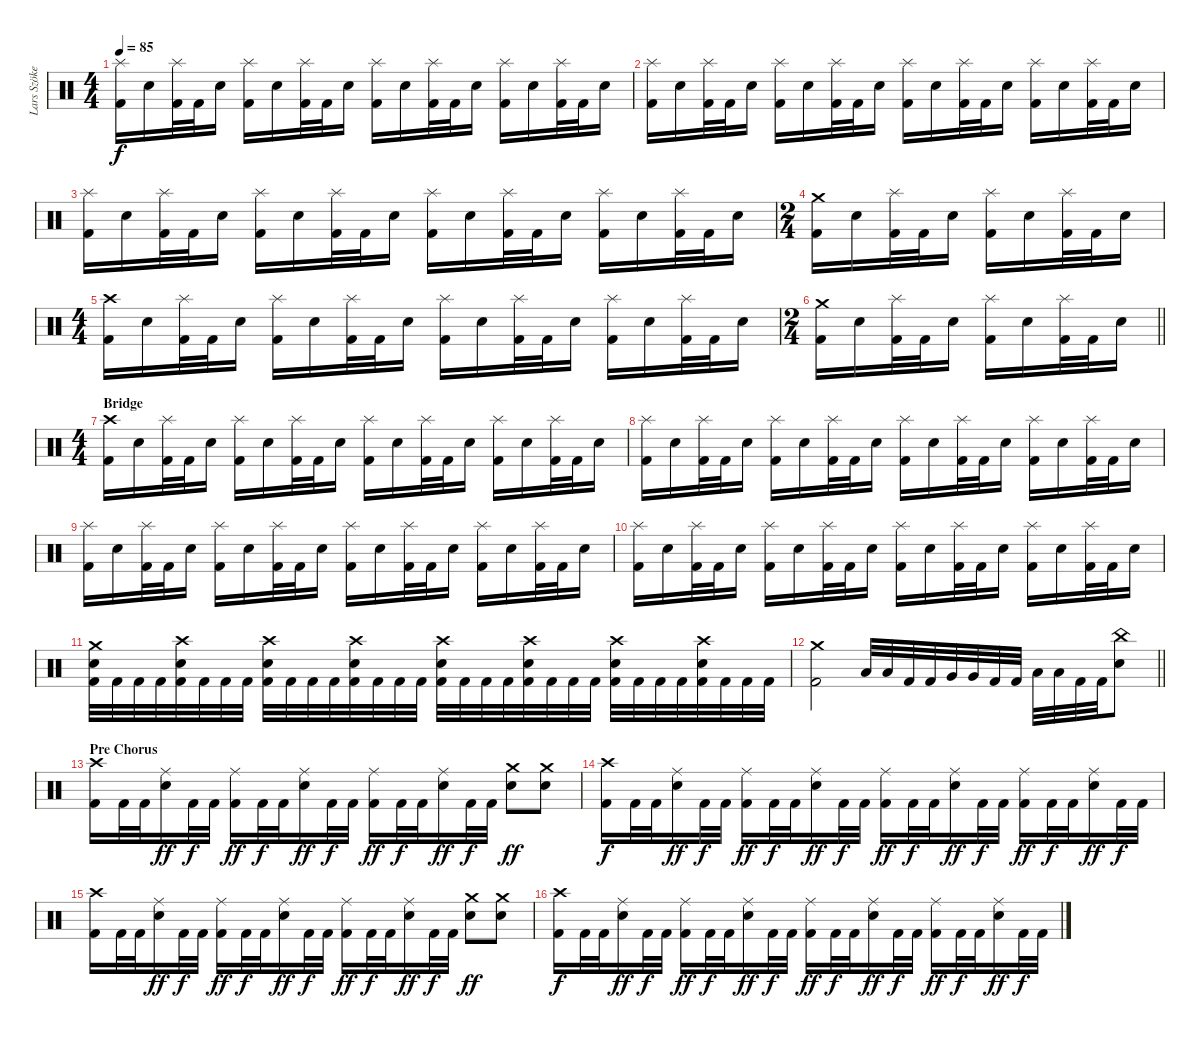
\track ("Lars Szöke" "Lars Szöke") {instrument percussion}
\staff {score}
\articulation defaults
\ts (4 4)
\tempo 85
\clef neutral
\ks c
("Splash (hit)" "Kick (hit) 2").16{dy f} "Snare (hit) 2".16 ("Splash (hit)" "Kick (hit) 2").32 "Kick (hit) 2".32 "Snare (hit) 2".16 ("Splash (hit)" "Kick (hit) 2").16 "Snare (hit) 2".16 ("Splash (hit)" "Kick (hit) 2").32 "Kick (hit) 2".32 "Snare (hit) 2".16 ("Splash (hit)" "Kick (hit) 2").16 "Snare (hit) 2".16 ("Splash (hit)" "Kick (hit) 2").32 "Kick (hit) 2".32 "Snare (hit) 2".16 ("Splash (hit)" "Kick (hit) 2").16 "Snare (hit) 2".16 ("Splash (hit)" "Kick (hit) 2").32 "Kick (hit) 2".32 "Snare (hit) 2".16 |
("Splash (hit)" "Kick (hit) 2").16 "Snare (hit) 2".16 ("Splash (hit)" "Kick (hit) 2").32 "Kick (hit) 2".32 "Snare (hit) 2".16 ("Splash (hit)" "Kick (hit) 2").16 "Snare (hit) 2".16 ("Splash (hit)" "Kick (hit) 2").32 "Kick (hit) 2".32 "Snare (hit) 2".16 ("Splash (hit)" "Kick (hit) 2").16 "Snare (hit) 2".16 ("Splash (hit)" "Kick (hit) 2").32 "Kick (hit) 2".32 "Snare (hit) 2".16 ("Splash (hit)" "Kick (hit) 2").16 "Snare (hit) 2".16 ("Splash (hit)" "Kick (hit) 2").32 "Kick (hit) 2".32 "Snare (hit) 2".16 |
("Splash (hit)" "Kick (hit) 2").16 "Snare (hit) 2".16 ("Splash (hit)" "Kick (hit) 2").32 "Kick (hit) 2".32 "Snare (hit) 2".16 ("Splash (hit)" "Kick (hit) 2").16 "Snare (hit) 2".16 ("Splash (hit)" "Kick (hit) 2").32 "Kick (hit) 2".32 "Snare (hit) 2".16 ("Splash (hit)" "Kick (hit) 2").16 "Snare (hit) 2".16 ("Splash (hit)" "Kick (hit) 2").32 "Kick (hit) 2".32 "Snare (hit) 2".16 ("Splash (hit)" "Kick (hit) 2").16 "Snare (hit) 2".16 ("Splash (hit)" "Kick (hit) 2").32 "Kick (hit) 2".32 "Snare (hit) 2".16 |
\ts (2 4)
("Crash medium (hit)" "Kick (hit) 2").16 "Snare (hit) 2".16 ("Splash (hit)" "Kick (hit) 2").32 "Kick (hit) 2".32 "Snare (hit) 2".16 ("Splash (hit)" "Kick (hit) 2").16 "Snare (hit) 2".16 ("Splash (hit)" "Kick (hit) 2").32 "Kick (hit) 2".32 "Snare (hit) 2".16 |
\ts (4 4)
("Crash high (hit)" "Kick (hit) 2").16 "Snare (hit) 2".16 ("Splash (hit)" "Kick (hit) 2").32 "Kick (hit) 2".32 "Snare (hit) 2".16 ("Splash (hit)" "Kick (hit) 2").16 "Snare (hit) 2".16 ("Splash (hit)" "Kick (hit) 2").32 "Kick (hit) 2".32 "Snare (hit) 2".16 ("Splash (hit)" "Kick (hit) 2").16 "Snare (hit) 2".16 ("Splash (hit)" "Kick (hit) 2").32 "Kick (hit) 2".32 "Snare (hit) 2".16 ("Splash (hit)" "Kick (hit) 2").16 "Snare (hit) 2".16 ("Splash (hit)" "Kick (hit) 2").32 "Kick (hit) 2".32 "Snare (hit) 2".16 |
\ts (2 4)
\barLineRight lightlight
("Crash medium (hit)" "Kick (hit) 2").16 "Snare (hit) 2".16 ("Splash (hit)" "Kick (hit) 2").32 "Kick (hit) 2".32 "Snare (hit) 2".16 ("Splash (hit)" "Kick (hit) 2").16 "Snare (hit) 2".16 ("Splash (hit)" "Kick (hit) 2").32 "Kick (hit) 2".32 "Snare (hit) 2".16 |
\ts (4 4)
\section ("" "Bridge")
("Crash high (hit)" "Kick (hit) 2").16 "Snare (hit) 2".16 ("Splash (hit)" "Kick (hit) 2").32 "Kick (hit) 2".32 "Snare (hit) 2".16 ("Splash (hit)" "Kick (hit) 2").16 "Snare (hit) 2".16 ("Splash (hit)" "Kick (hit) 2").32 "Kick (hit) 2".32 "Snare (hit) 2".16 ("Splash (hit)" "Kick (hit) 2").16 "Snare (hit) 2".16 ("Splash (hit)" "Kick (hit) 2").32 "Kick (hit) 2".32 "Snare (hit) 2".16 ("Splash (hit)" "Kick (hit) 2").16 "Snare (hit) 2".16 ("Splash (hit)" "Kick (hit) 2").32 "Kick (hit) 2".32 "Snare (hit) 2".16 |
("Splash (hit)" "Kick (hit) 2").16 "Snare (hit) 2".16 ("Splash (hit)" "Kick (hit) 2").32 "Kick (hit) 2".32 "Snare (hit) 2".16 ("Splash (hit)" "Kick (hit) 2").16 "Snare (hit) 2".16 ("Splash (hit)" "Kick (hit) 2").32 "Kick (hit) 2".32 "Snare (hit) 2".16 ("Splash (hit)" "Kick (hit) 2").16 "Snare (hit) 2".16 ("Splash (hit)" "Kick (hit) 2").32 "Kick (hit) 2".32 "Snare (hit) 2".16 ("Splash (hit)" "Kick (hit) 2").16 "Snare (hit) 2".16 ("Splash (hit)" "Kick (hit) 2").32 "Kick (hit) 2".32 "Snare (hit) 2".16 |
("Splash (hit)" "Kick (hit) 2").16 "Snare (hit) 2".16 ("Splash (hit)" "Kick (hit) 2").32 "Kick (hit) 2".32 "Snare (hit) 2".16 ("Splash (hit)" "Kick (hit) 2").16 "Snare (hit) 2".16 ("Splash (hit)" "Kick (hit) 2").32 "Kick (hit) 2".32 "Snare (hit) 2".16 ("Splash (hit)" "Kick (hit) 2").16 "Snare (hit) 2".16 ("Splash (hit)" "Kick (hit) 2").32 "Kick (hit) 2".32 "Snare (hit) 2".16 ("Splash (hit)" "Kick (hit) 2").16 "Snare (hit) 2".16 ("Splash (hit)" "Kick (hit) 2").32 "Kick (hit) 2".32 "Snare (hit) 2".16 |
("Splash (hit)" "Kick (hit) 2").16 "Snare (hit) 2".16 ("Splash (hit)" "Kick (hit) 2").32 "Kick (hit) 2".32 "Snare (hit) 2".16 ("Splash (hit)" "Kick (hit) 2").16 "Snare (hit) 2".16 ("Splash (hit)" "Kick (hit) 2").32 "Kick (hit) 2".32 "Snare (hit) 2".16 ("Splash (hit)" "Kick (hit) 2").16 "Snare (hit) 2".16 ("Splash (hit)" "Kick (hit) 2").32 "Kick (hit) 2".32 "Snare (hit) 2".16 ("Splash (hit)" "Kick (hit) 2").16 "Snare (hit) 2".16 ("Splash (hit)" "Kick (hit) 2").32 "Kick (hit) 2".32 "Snare (hit) 2".16 |
("Crash medium (hit)" "Snare (hit) 2" "Kick (hit) 2").32 "Kick (hit) 2".32 "Kick (hit) 2".32 "Kick (hit) 2".32 ("Crash high (hit)" "Snare (hit) 2" "Kick (hit) 2").32 "Kick (hit) 2".32 "Kick (hit) 2".32 "Kick (hit) 2".32 ("Crash high (hit)" "Snare (hit) 2" "Kick (hit) 2").32 "Kick (hit) 2".32 "Kick (hit) 2".32 "Kick (hit) 2".32 ("Crash high (hit)" "Snare (hit) 2" "Kick (hit) 2").32 "Kick (hit) 2".32 "Kick (hit) 2".32 "Kick (hit) 2".32 ("Crash high (hit)" "Snare (hit) 2" "Kick (hit) 2").32 "Kick (hit) 2".32 "Kick (hit) 2".32 "Kick (hit) 2".32 ("Crash high (hit)" "Snare (hit) 2" "Kick (hit) 2").32 "Kick (hit) 2".32 "Kick (hit) 2".32 "Kick (hit) 2".32 ("Crash high (hit)" "Snare (hit) 2" "Kick (hit) 2").32 "Kick (hit) 2".32 "Kick (hit) 2".32 "Kick (hit) 2".32 ("Crash high (hit)" "Snare (hit) 2" "Kick (hit) 2").32 "Kick (hit) 2".32 "Kick (hit) 2".32 "Kick (hit) 2".32 |
\barLineRight lightlight
("Crash medium (hit)" "Kick (hit) 2").2 "Low Tom (hit)".32 "Low Tom (hit)".32 "Kick (hit) 2".32 "Kick (hit) 2".32 "Very Low Tom (hit)".32 "Very Low Tom (hit)".32 "Kick (hit) 2".32 "Kick (hit) 2".32 "Low Floor Tom (hit)".32 "Low Floor Tom (hit)".32 "Kick (hit) 2".32 "Kick (hit) 2".32 ("China (hit)" "Snare (hit) 2").8 |
\section ("" "Pre Chorus")
("Crash high (hit)" "Kick (hit) 2").16 "Kick (hit) 2".32 "Kick (hit) 2".32 ("Ride (middle)" "Snare (hit) 2").16{dy ff} "Kick (hit) 2".32{dy f} "Kick (hit) 2".32 ("Ride (middle)" "Kick (hit) 2").16{dy ff} "Kick (hit) 2".32{dy f} "Kick (hit) 2".32 ("Ride (middle)" "Snare (hit) 2").16{dy ff} "Kick (hit) 2".32{dy f} "Kick (hit) 2".32 ("Ride (middle)" "Kick (hit) 2").16{dy ff} "Kick (hit) 2".32{dy f} "Kick (hit) 2".32 ("Ride (middle)" "Snare (hit) 2").16{dy ff} "Kick (hit) 2".32{dy f} "Kick (hit) 2".32 ("Crash medium (hit)" "Snare (hit) 2").8{dy ff} ("Crash medium (hit)" "Snare (hit) 2").8 |
("Crash high (hit)" "Kick (hit) 2").16{dy f} "Kick (hit) 2".32 "Kick (hit) 2".32 ("Ride (middle)" "Snare (hit) 2").16{dy ff} "Kick (hit) 2".32{dy f} "Kick (hit) 2".32 ("Ride (middle)" "Kick (hit) 2").16{dy ff} "Kick (hit) 2".32{dy f} "Kick (hit) 2".32 ("Ride (middle)" "Snare (hit) 2").16{dy ff} "Kick (hit) 2".32{dy f} "Kick (hit) 2".32 ("Ride (middle)" "Kick (hit) 2").16{dy ff} "Kick (hit) 2".32{dy f} "Kick (hit) 2".32 ("Ride (middle)" "Snare (hit) 2").16{dy ff} "Kick (hit) 2".32{dy f} "Kick (hit) 2".32 ("Ride (middle)" "Kick (hit) 2").16{dy ff} "Kick (hit) 2".32{dy f} "Kick (hit) 2".32 ("Ride (middle)" "Snare (hit) 2").16{dy ff} "Kick (hit) 2".32{dy f} "Kick (hit) 2".32 |
("Crash high (hit)" "Kick (hit) 2").16 "Kick (hit) 2".32 "Kick (hit) 2".32 ("Ride (middle)" "Snare (hit) 2").16{dy ff} "Kick (hit) 2".32{dy f} "Kick (hit) 2".32 ("Ride (middle)" "Kick (hit) 2").16{dy ff} "Kick (hit) 2".32{dy f} "Kick (hit) 2".32 ("Ride (middle)" "Snare (hit) 2").16{dy ff} "Kick (hit) 2".32{dy f} "Kick (hit) 2".32 ("Ride (middle)" "Kick (hit) 2").16{dy ff} "Kick (hit) 2".32{dy f} "Kick (hit) 2".32 ("Ride (middle)" "Snare (hit) 2").16{dy ff} "Kick (hit) 2".32{dy f} "Kick (hit) 2".32 ("Crash medium (hit)" "Snare (hit) 2").8{dy ff} ("Crash medium (hit)" "Snare (hit) 2").8 |
("Crash high (hit)" "Kick (hit) 2").16{dy f} "Kick (hit) 2".32 "Kick (hit) 2".32 ("Ride (middle)" "Snare (hit) 2").16{dy ff} "Kick (hit) 2".32{dy f} "Kick (hit) 2".32 ("Ride (middle)" "Kick (hit) 2").16{dy ff} "Kick (hit) 2".32{dy f} "Kick (hit) 2".32 ("Ride (middle)" "Snare (hit) 2").16{dy ff} "Kick (hit) 2".32{dy f} "Kick (hit) 2".32 ("Ride (middle)" "Kick (hit) 2").16{dy ff} "Kick (hit) 2".32{dy f} "Kick (hit) 2".32 ("Ride (middle)" "Snare (hit) 2").16{dy ff} "Kick (hit) 2".32{dy f} "Kick (hit) 2".32 ("Ride (middle)" "Kick (hit) 2").16{dy ff} "Kick (hit) 2".32{dy f} "Kick (hit) 2".32 ("Ride (middle)" "Snare (hit) 2").16{dy ff} "Kick (hit) 2".32{dy f} "Kick (hit) 2".32
